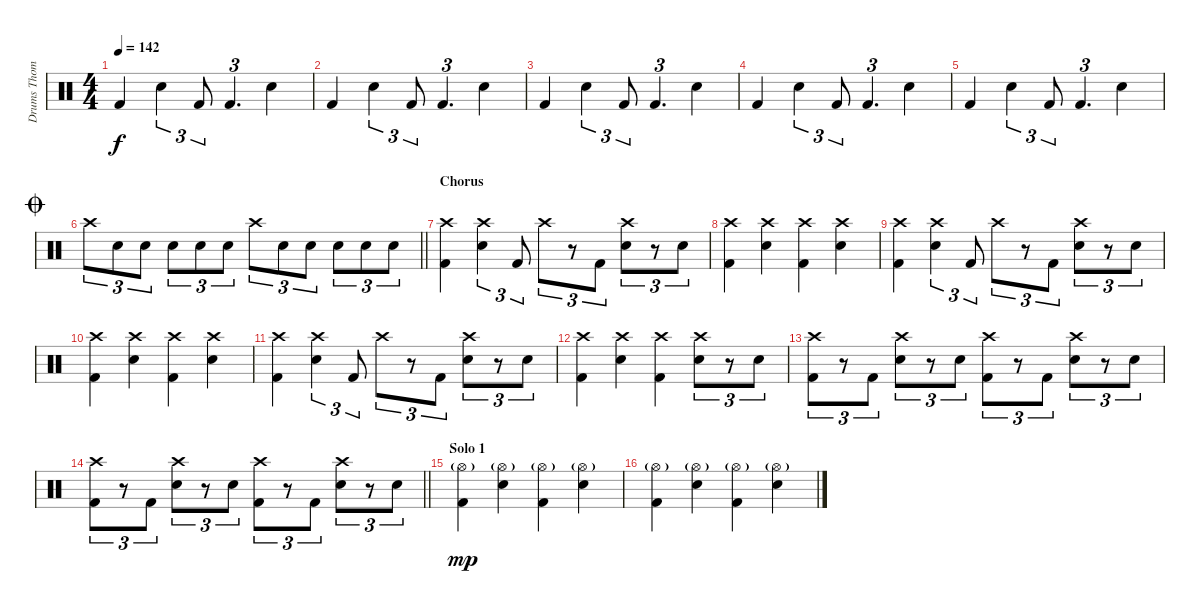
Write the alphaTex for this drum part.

\track ("Drums Thomas Goetz" "Drums Thom") {instrument percussion}
\staff {score}
\articulation defaults
\ts (4 4)
\tempo 142
\clef neutral
\ks c "Kick (hit) 2".4{dy f} "Snare (hit) 2".4{tu (3 2)} "Kick (hit) 2".8{tu (3 2)} "Kick (hit) 2".4{d tu (3 2)} "Snare (hit) 2".4
|
"Kick (hit) 2".4 "Snare (hit) 2".4{tu (3 2)} "Kick (hit) 2".8{tu (3 2)} "Kick (hit) 2".4{d tu (3 2)} "Snare (hit) 2".4 |
"Kick (hit) 2".4 "Snare (hit) 2".4{tu (3 2)} "Kick (hit) 2".8{tu (3 2)} "Kick (hit) 2".4{d tu (3 2)} "Snare (hit) 2".4 |
"Kick (hit) 2".4 "Snare (hit) 2".4{tu (3 2)} "Kick (hit) 2".8{tu (3 2)} "Kick (hit) 2".4{d tu (3 2)} "Snare (hit) 2".4 |
"Kick (hit) 2".4 "Snare (hit) 2".4{tu (3 2)} "Kick (hit) 2".8{tu (3 2)} "Kick (hit) 2".4{d tu (3 2)} "Snare (hit) 2".4 |
\jump coda
\barLineRight lightlight "Crash high (hit)".8{tu (3 2)} "Snare (hit) 2".8{tu (3 2)} "Snare (hit) 2".8{tu (3 2)} "Snare (hit) 2".8{tu (3 2)} "Snare (hit) 2".8{tu (3 2)} "Snare (hit) 2".8{tu (3 2)} "Crash high (hit)".8{tu (3 2)} "Snare (hit) 2".8{tu (3 2)} "Snare (hit) 2".8{tu (3 2)} "Snare (hit) 2".8{tu (3 2)} "Snare (hit) 2".8{tu (3 2)} "Snare (hit) 2".8{tu (3 2)}
|
\section ("" "Chorus")
("Crash high (hit)" "Kick (hit) 2").4 ("Crash high (hit)" "Snare (hit) 2").4{tu (3 2)} "Kick (hit) 2".8{tu (3 2)} "Crash high (hit)".8{tu (3 2)} r.8{tu (3 2)} "Kick (hit) 2".8{tu (3 2)} ("Crash high (hit)" "Snare (hit) 2").8{tu (3 2)} r.8{tu (3 2)} "Snare (hit) 2".8{tu (3 2)} |
("Crash high (hit)" "Kick (hit) 2").4 ("Crash high (hit)" "Snare (hit) 2").4 ("Crash high (hit)" "Kick (hit) 2").4 ("Crash high (hit)" "Snare (hit) 2").4 |
("Crash high (hit)" "Kick (hit) 2").4 ("Crash high (hit)" "Snare (hit) 2").4{tu (3 2)} "Kick (hit) 2".8{tu (3 2)} "Crash high (hit)".8{tu (3 2)} r.8{tu (3 2)} "Kick (hit) 2".8{tu (3 2)} ("Crash high (hit)" "Snare (hit) 2").8{tu (3 2)} r.8{tu (3 2)} "Snare (hit) 2".8{tu (3 2)} |
("Crash high (hit)" "Kick (hit) 2").4 ("Crash high (hit)" "Snare (hit) 2").4 ("Crash high (hit)" "Kick (hit) 2").4 ("Crash high (hit)" "Snare (hit) 2").4 |
("Crash high (hit)" "Kick (hit) 2").4 ("Crash high (hit)" "Snare (hit) 2").4{tu (3 2)} "Kick (hit) 2".8{tu (3 2)} "Crash high (hit)".8{tu (3 2)} r.8{tu (3 2)} "Kick (hit) 2".8{tu (3 2)} ("Crash high (hit)" "Snare (hit) 2").8{tu (3 2)} r.8{tu (3 2)} "Snare (hit) 2".8{tu (3 2)} |
("Crash high (hit)" "Kick (hit) 2").4 ("Crash high (hit)" "Snare (hit) 2").4 ("Crash high (hit)" "Kick (hit) 2").4 ("Crash high (hit)" "Snare (hit) 2").8{tu (3 2)} r.8{tu (3 2)} "Snare (hit) 2".8{tu (3 2)} |
("Crash high (hit)" "Kick (hit) 2").8{tu (3 2)} r.8{tu (3 2)} "Kick (hit) 2".8{tu (3 2)} ("Crash high (hit)" "Snare (hit) 2").8{tu (3 2)} r.8{tu (3 2)} "Snare (hit) 2".8{tu (3 2)} ("Crash high (hit)" "Kick (hit) 2").8{tu (3 2)} r.8{tu (3 2)} "Kick (hit) 2".8{tu (3 2)} ("Crash high (hit)" "Snare (hit) 2").8{tu (3 2)} r.8{tu (3 2)} "Snare (hit) 2".8{tu (3 2)} |
\barLineRight lightlight
("Crash high (hit)" "Kick (hit) 2").8{tu (3 2)} r.8{tu (3 2)} "Kick (hit) 2".8{tu (3 2)} ("Crash high (hit)" "Snare (hit) 2").8{tu (3 2)} r.8{tu (3 2)} "Snare (hit) 2".8{tu (3 2)} ("Crash high (hit)" "Kick (hit) 2").8{tu (3 2)} r.8{tu (3 2)} "Kick (hit) 2".8{tu (3 2)} ("Crash high (hit)" "Snare (hit) 2").8{tu (3 2)} r.8{tu (3 2)} "Snare (hit) 2".8{tu (3 2)} |
\section ("" "Solo 1")
("Hi-Hat (open)"{g} "Kick (hit) 2").4{dy mp} ("Hi-Hat (open)"{g} "Snare (hit) 2").4 ("Hi-Hat (open)"{g} "Kick (hit) 2").4 ("Hi-Hat (open)"{g} "Snare (hit) 2").4 |
("Hi-Hat (open)"{g} "Kick (hit) 2").4 ("Hi-Hat (open)"{g} "Snare (hit) 2").4 ("Hi-Hat (open)"{g} "Kick (hit) 2").4 ("Hi-Hat (open)"{g} "Snare (hit) 2").4
